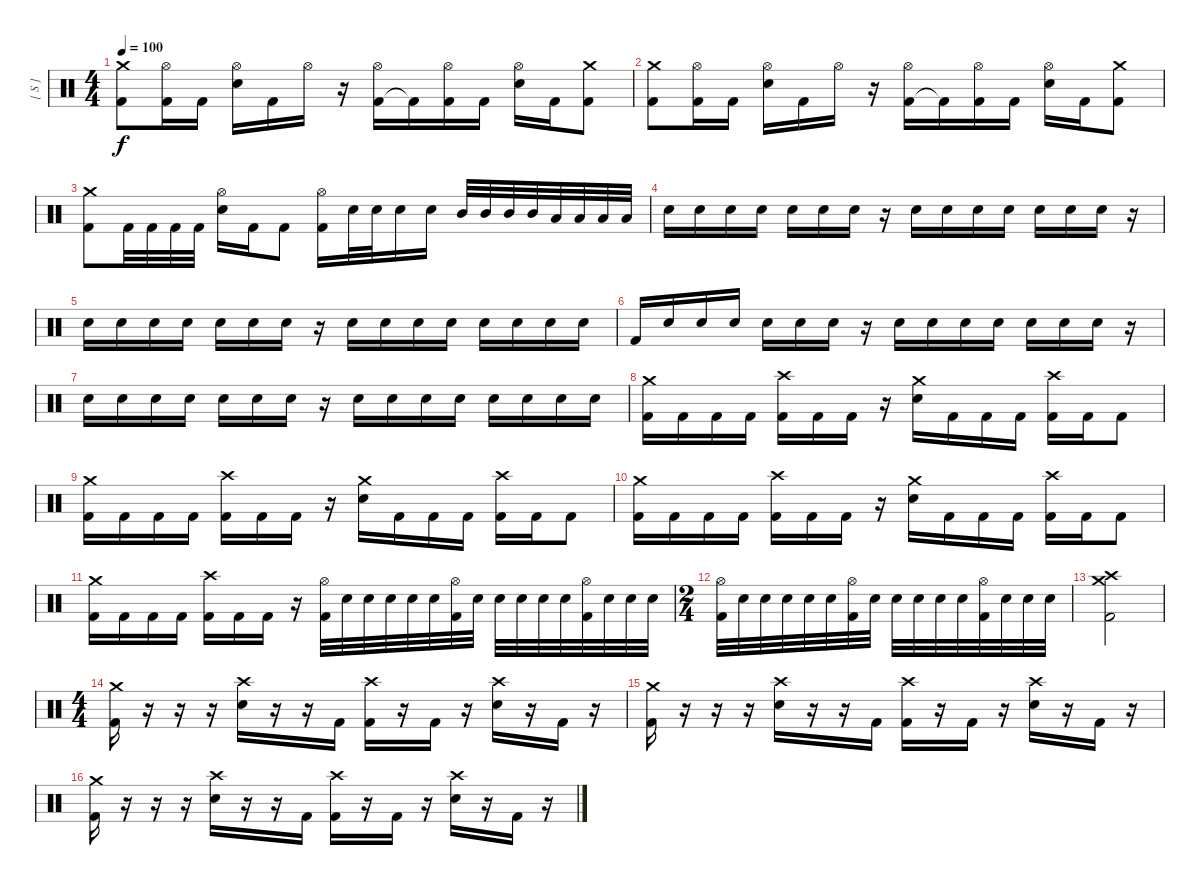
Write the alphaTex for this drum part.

\track ("[ S ]" "[ S ]") {instrument percussion}
\staff {score}
\articulation defaults
\ts (4 4)
\tempo 100
\clef neutral
\ks c
("Kick (hit) 2" "Crash medium (hit)").8{dy f} ("Kick (hit) 2" "Hi-Hat (open)").16 "Kick (hit) 2".16 ("Electric Snare (hit)" "Hi-Hat (open)").16 "Kick (hit) 2".16 "Hi-Hat (open)".16 r.16 ("Kick (hit) 2" "Hi-Hat (open)").16 "Kick (hit) 2"{t}.16 ("Kick (hit) 2" "Hi-Hat (open)").16 "Kick (hit) 2".16 ("Electric Snare (hit)" "Hi-Hat (open)").16 "Kick (hit) 2".16 ("Kick (hit) 2" "Crash medium (hit)").8 |
("Kick (hit) 2" "Crash medium (hit)").8 ("Kick (hit) 2" "Hi-Hat (open)").16 "Kick (hit) 2".16 ("Electric Snare (hit)" "Hi-Hat (open)").16 "Kick (hit) 2".16 "Hi-Hat (open)".16 r.16 ("Kick (hit) 2" "Hi-Hat (open)").16 "Kick (hit) 2"{t}.16 ("Kick (hit) 2" "Hi-Hat (open)").16 "Kick (hit) 2".16 ("Electric Snare (hit)" "Hi-Hat (open)").16 "Kick (hit) 2".16 ("Kick (hit) 2" "Crash medium (hit)").8 |
("Kick (hit) 2" "Crash medium (hit)").8 "Kick (hit) 2".32 "Kick (hit) 2".32 "Kick (hit) 2".32 "Kick (hit) 2".32 ("Electric Snare (hit)" "Hi-Hat (open)").16 "Kick (hit) 2".16 "Kick (hit) 2".8 ("Kick (hit) 2" "Hi-Hat (open)").16 "Electric Snare (hit)".32 "Electric Snare (hit)".32 "Electric Snare (hit)".16 "Electric Snare (hit)".16 "Mid Tom (hit)".32 "Mid Tom (hit)".32 "Mid Tom (hit)".32 "Mid Tom (hit)".32 "Low Tom (hit)".32 "Low Tom (hit)".32 "Low Tom (hit)".32 "Low Tom (hit)".32 |
"Electric Snare (hit)".16 "Electric Snare (hit)".16 "Electric Snare (hit)".16 "Electric Snare (hit)".16 "Electric Snare (hit)".16 "Electric Snare (hit)".16 "Electric Snare (hit)".16 r.16 "Electric Snare (hit)".16 "Electric Snare (hit)".16 "Electric Snare (hit)".16 "Electric Snare (hit)".16 "Electric Snare (hit)".16 "Electric Snare (hit)".16 "Electric Snare (hit)".16 r.16 |
"Electric Snare (hit)".16 "Electric Snare (hit)".16 "Electric Snare (hit)".16 "Electric Snare (hit)".16 "Electric Snare (hit)".16 "Electric Snare (hit)".16 "Electric Snare (hit)".16 r.16 "Electric Snare (hit)".16 "Electric Snare (hit)".16 "Electric Snare (hit)".16 "Electric Snare (hit)".16 "Electric Snare (hit)".16 "Electric Snare (hit)".16 "Electric Snare (hit)".16 "Electric Snare (hit)".16 |
"Kick (hit) 2".16 "Electric Snare (hit)".16 "Electric Snare (hit)".16 "Electric Snare (hit)".16 "Electric Snare (hit)".16 "Electric Snare (hit)".16 "Electric Snare (hit)".16 r.16 "Electric Snare (hit)".16 "Electric Snare (hit)".16 "Electric Snare (hit)".16 "Electric Snare (hit)".16 "Electric Snare (hit)".16 "Electric Snare (hit)".16 "Electric Snare (hit)".16 r.16 |
"Electric Snare (hit)".16 "Electric Snare (hit)".16 "Electric Snare (hit)".16 "Electric Snare (hit)".16 "Electric Snare (hit)".16 "Electric Snare (hit)".16 "Electric Snare (hit)".16 r.16 "Electric Snare (hit)".16 "Electric Snare (hit)".16 "Electric Snare (hit)".16 "Electric Snare (hit)".16 "Electric Snare (hit)".16 "Electric Snare (hit)".16 "Electric Snare (hit)".16 "Electric Snare (hit)".16 |
("Kick (hit) 2" "Crash medium (hit)").16 "Kick (hit) 2".16 "Kick (hit) 2".16 "Kick (hit) 2".16 ("Kick (hit) 2" "Crash high (hit)").16 "Kick (hit) 2".16 "Kick (hit) 2".16 r.16 ("Electric Snare (hit)" "Crash medium (hit)").16 "Kick (hit) 2".16 "Kick (hit) 2".16 "Kick (hit) 2".16 ("Kick (hit) 2" "Crash high (hit)").16 "Kick (hit) 2".16 "Kick (hit) 2".8 |
("Kick (hit) 2" "Crash medium (hit)").16 "Kick (hit) 2".16 "Kick (hit) 2".16 "Kick (hit) 2".16 ("Kick (hit) 2" "Crash high (hit)").16 "Kick (hit) 2".16 "Kick (hit) 2".16 r.16 ("Electric Snare (hit)" "Crash medium (hit)").16 "Kick (hit) 2".16 "Kick (hit) 2".16 "Kick (hit) 2".16 ("Kick (hit) 2" "Crash high (hit)").16 "Kick (hit) 2".16 "Kick (hit) 2".8 |
("Kick (hit) 2" "Crash medium (hit)").16 "Kick (hit) 2".16 "Kick (hit) 2".16 "Kick (hit) 2".16 ("Kick (hit) 2" "Crash high (hit)").16 "Kick (hit) 2".16 "Kick (hit) 2".16 r.16 ("Electric Snare (hit)" "Crash medium (hit)").16 "Kick (hit) 2".16 "Kick (hit) 2".16 "Kick (hit) 2".16 ("Kick (hit) 2" "Crash high (hit)").16 "Kick (hit) 2".16 "Kick (hit) 2".8 |
("Kick (hit) 2" "Crash medium (hit)").16 "Kick (hit) 2".16 "Kick (hit) 2".16 "Kick (hit) 2".16 ("Kick (hit) 2" "Crash high (hit)").16 "Kick (hit) 2".16 "Kick (hit) 2".16 r.16 ("Kick (hit) 2" "Hi-Hat (open)").32 "Electric Snare (hit)".32 "Electric Snare (hit)".32 "Electric Snare (hit)".32 "Electric Snare (hit)".32 "Electric Snare (hit)".32 ("Kick (hit) 2" "Hi-Hat (open)").32 "Electric Snare (hit)".32 "Electric Snare (hit)".32 "Electric Snare (hit)".32 "Electric Snare (hit)".32 "Electric Snare (hit)".32 ("Kick (hit) 2" "Hi-Hat (open)").32 "Electric Snare (hit)".32 "Electric Snare (hit)".32 "Electric Snare (hit)".32 |
\ts (2 4)
("Kick (hit) 2" "Hi-Hat (open)").32 "Electric Snare (hit)".32 "Electric Snare (hit)".32 "Electric Snare (hit)".32 "Electric Snare (hit)".32 "Electric Snare (hit)".32 ("Kick (hit) 2" "Hi-Hat (open)").32 "Electric Snare (hit)".32 "Electric Snare (hit)".32 "Electric Snare (hit)".32 "Electric Snare (hit)".32 "Electric Snare (hit)".32 ("Kick (hit) 2" "Hi-Hat (open)").32 "Electric Snare (hit)".32 "Electric Snare (hit)".32 "Electric Snare (hit)".32 |
("Crash medium (hit)" "Crash high (hit)" "Kick (hit) 2").2 |
\ts (4 4)
("Kick (hit) 2" "Crash medium (hit)").16 r.16 r.16 r.16 ("Electric Snare (hit)" "Crash high (hit)").16 r.16 r.16 "Kick (hit) 2".16 ("Kick (hit) 2" "Crash high (hit)").16 r.16 "Kick (hit) 2".16 r.16 ("Electric Snare (hit)" "Crash high (hit)").16 r.16 "Kick (hit) 2".16 r.16 |
("Kick (hit) 2" "Crash medium (hit)").16 r.16 r.16 r.16 ("Electric Snare (hit)" "Crash high (hit)").16 r.16 r.16 "Kick (hit) 2".16 ("Kick (hit) 2" "Crash high (hit)").16 r.16 "Kick (hit) 2".16 r.16 ("Electric Snare (hit)" "Crash high (hit)").16 r.16 "Kick (hit) 2".16 r.16 |
("Kick (hit) 2" "Crash medium (hit)").16 r.16 r.16 r.16 ("Electric Snare (hit)" "Crash high (hit)").16 r.16 r.16 "Kick (hit) 2".16 ("Kick (hit) 2" "Crash high (hit)").16 r.16 "Kick (hit) 2".16 r.16 ("Electric Snare (hit)" "Crash high (hit)").16 r.16 "Kick (hit) 2".16 r.16
